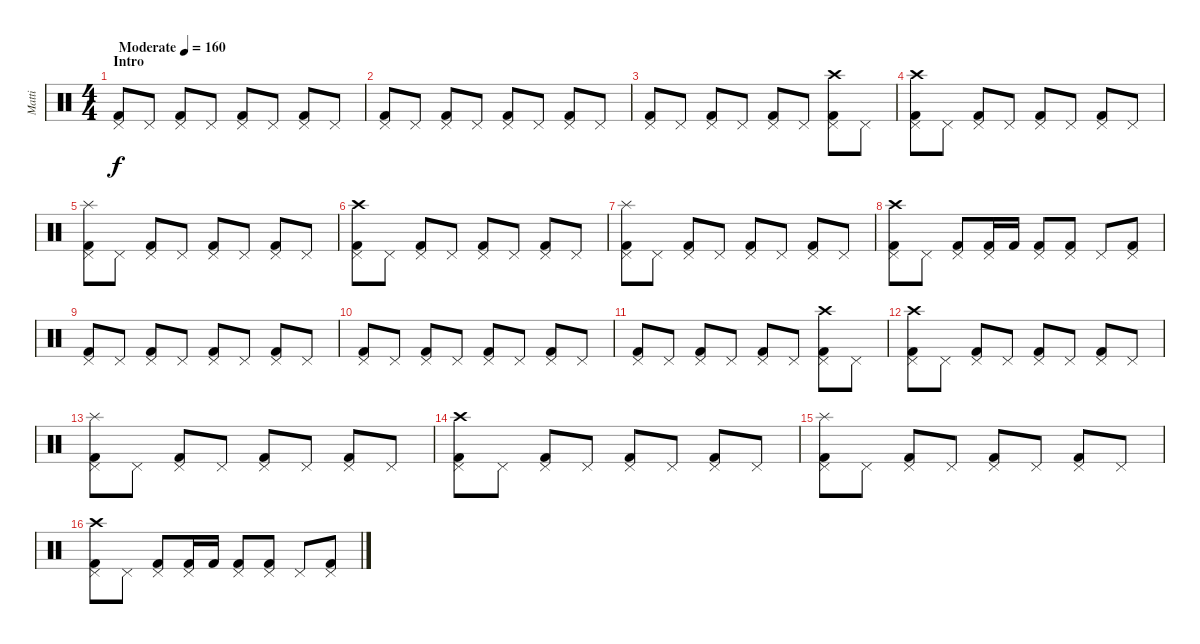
\track ("Matti" "Matti") {instrument percussion}
\staff {score}
\articulation defaults
\ts (4 4)
\section ("" "Intro")
\tempo (160 "Moderate")
\clef neutral
\ks c
("Pedal Hi-Hat (hit)" "Kick (hit) 2").8{dy f} "Pedal Hi-Hat (hit)".8 ("Pedal Hi-Hat (hit)" "Kick (hit) 2").8 "Pedal Hi-Hat (hit)".8 ("Pedal Hi-Hat (hit)" "Kick (hit) 2").8 "Pedal Hi-Hat (hit)".8 ("Pedal Hi-Hat (hit)" "Kick (hit) 2").8 "Pedal Hi-Hat (hit)".8 |
("Pedal Hi-Hat (hit)" "Kick (hit) 2").8 "Pedal Hi-Hat (hit)".8 ("Pedal Hi-Hat (hit)" "Kick (hit) 2").8 "Pedal Hi-Hat (hit)".8 ("Pedal Hi-Hat (hit)" "Kick (hit) 2").8 "Pedal Hi-Hat (hit)".8 ("Pedal Hi-Hat (hit)" "Kick (hit) 2").8 "Pedal Hi-Hat (hit)".8 |
("Pedal Hi-Hat (hit)" "Kick (hit) 2").8 "Pedal Hi-Hat (hit)".8 ("Pedal Hi-Hat (hit)" "Kick (hit) 2").8 "Pedal Hi-Hat (hit)".8 ("Pedal Hi-Hat (hit)" "Kick (hit) 2").8 "Pedal Hi-Hat (hit)".8 ("Crash high (hit)" "Pedal Hi-Hat (hit)" "Kick (hit) 2").8 "Pedal Hi-Hat (hit)".8 |
("Crash high (hit)" "Pedal Hi-Hat (hit)" "Kick (hit) 2").8 "Pedal Hi-Hat (hit)".8 ("Pedal Hi-Hat (hit)" "Kick (hit) 2").8 "Pedal Hi-Hat (hit)".8 ("Pedal Hi-Hat (hit)" "Kick (hit) 2").8 "Pedal Hi-Hat (hit)".8 ("Pedal Hi-Hat (hit)" "Kick (hit) 2").8 "Pedal Hi-Hat (hit)".8 |
("Splash (hit)" "Pedal Hi-Hat (hit)" "Kick (hit) 2").8 "Pedal Hi-Hat (hit)".8 ("Pedal Hi-Hat (hit)" "Kick (hit) 2").8 "Pedal Hi-Hat (hit)".8 ("Pedal Hi-Hat (hit)" "Kick (hit) 2").8 "Pedal Hi-Hat (hit)".8 ("Pedal Hi-Hat (hit)" "Kick (hit) 2").8 "Pedal Hi-Hat (hit)".8 |
("Crash high (hit)" "Pedal Hi-Hat (hit)" "Kick (hit) 2").8 "Pedal Hi-Hat (hit)".8 ("Pedal Hi-Hat (hit)" "Kick (hit) 2").8 "Pedal Hi-Hat (hit)".8 ("Pedal Hi-Hat (hit)" "Kick (hit) 2").8 "Pedal Hi-Hat (hit)".8 ("Pedal Hi-Hat (hit)" "Kick (hit) 2").8 "Pedal Hi-Hat (hit)".8 |
("Splash (hit)" "Pedal Hi-Hat (hit)" "Kick (hit) 2").8 "Pedal Hi-Hat (hit)".8 ("Pedal Hi-Hat (hit)" "Kick (hit) 2").8 "Pedal Hi-Hat (hit)".8 ("Pedal Hi-Hat (hit)" "Kick (hit) 2").8 "Pedal Hi-Hat (hit)".8 ("Pedal Hi-Hat (hit)" "Kick (hit) 2").8 "Pedal Hi-Hat (hit)".8 |
("Crash high (hit)" "Pedal Hi-Hat (hit)" "Kick (hit) 2").8 "Pedal Hi-Hat (hit)".8 ("Pedal Hi-Hat (hit)" "Kick (hit) 2").8 ("Pedal Hi-Hat (hit)" "Kick (hit) 2").16 "Kick (hit) 2".16 ("Pedal Hi-Hat (hit)" "Kick (hit) 2").8 ("Pedal Hi-Hat (hit)" "Kick (hit) 2").8 "Pedal Hi-Hat (hit)".8 ("Pedal Hi-Hat (hit)" "Kick (hit) 2").8 |
("Pedal Hi-Hat (hit)" "Kick (hit) 2").8 "Pedal Hi-Hat (hit)".8 ("Pedal Hi-Hat (hit)" "Kick (hit) 2").8 "Pedal Hi-Hat (hit)".8 ("Pedal Hi-Hat (hit)" "Kick (hit) 2").8 "Pedal Hi-Hat (hit)".8 ("Pedal Hi-Hat (hit)" "Kick (hit) 2").8 "Pedal Hi-Hat (hit)".8 |
("Pedal Hi-Hat (hit)" "Kick (hit) 2").8 "Pedal Hi-Hat (hit)".8 ("Pedal Hi-Hat (hit)" "Kick (hit) 2").8 "Pedal Hi-Hat (hit)".8 ("Pedal Hi-Hat (hit)" "Kick (hit) 2").8 "Pedal Hi-Hat (hit)".8 ("Pedal Hi-Hat (hit)" "Kick (hit) 2").8 "Pedal Hi-Hat (hit)".8 |
("Pedal Hi-Hat (hit)" "Kick (hit) 2").8 "Pedal Hi-Hat (hit)".8 ("Pedal Hi-Hat (hit)" "Kick (hit) 2").8 "Pedal Hi-Hat (hit)".8 ("Pedal Hi-Hat (hit)" "Kick (hit) 2").8 "Pedal Hi-Hat (hit)".8 ("Crash high (hit)" "Pedal Hi-Hat (hit)" "Kick (hit) 2").8 "Pedal Hi-Hat (hit)".8 |
("Crash high (hit)" "Pedal Hi-Hat (hit)" "Kick (hit) 2").8 "Pedal Hi-Hat (hit)".8 ("Pedal Hi-Hat (hit)" "Kick (hit) 2").8 "Pedal Hi-Hat (hit)".8 ("Pedal Hi-Hat (hit)" "Kick (hit) 2").8 "Pedal Hi-Hat (hit)".8 ("Pedal Hi-Hat (hit)" "Kick (hit) 2").8 "Pedal Hi-Hat (hit)".8 |
("Splash (hit)" "Pedal Hi-Hat (hit)" "Kick (hit) 2").8 "Pedal Hi-Hat (hit)".8 ("Pedal Hi-Hat (hit)" "Kick (hit) 2").8 "Pedal Hi-Hat (hit)".8 ("Pedal Hi-Hat (hit)" "Kick (hit) 2").8 "Pedal Hi-Hat (hit)".8 ("Pedal Hi-Hat (hit)" "Kick (hit) 2").8 "Pedal Hi-Hat (hit)".8 |
("Crash high (hit)" "Pedal Hi-Hat (hit)" "Kick (hit) 2").8 "Pedal Hi-Hat (hit)".8 ("Pedal Hi-Hat (hit)" "Kick (hit) 2").8 "Pedal Hi-Hat (hit)".8 ("Pedal Hi-Hat (hit)" "Kick (hit) 2").8 "Pedal Hi-Hat (hit)".8 ("Pedal Hi-Hat (hit)" "Kick (hit) 2").8 "Pedal Hi-Hat (hit)".8 |
("Splash (hit)" "Pedal Hi-Hat (hit)" "Kick (hit) 2").8 "Pedal Hi-Hat (hit)".8 ("Pedal Hi-Hat (hit)" "Kick (hit) 2").8 "Pedal Hi-Hat (hit)".8 ("Pedal Hi-Hat (hit)" "Kick (hit) 2").8 "Pedal Hi-Hat (hit)".8 ("Pedal Hi-Hat (hit)" "Kick (hit) 2").8 "Pedal Hi-Hat (hit)".8 |
("Crash high (hit)" "Pedal Hi-Hat (hit)" "Kick (hit) 2").8 "Pedal Hi-Hat (hit)".8 ("Pedal Hi-Hat (hit)" "Kick (hit) 2").8 ("Pedal Hi-Hat (hit)" "Kick (hit) 2").16 "Kick (hit) 2".16 ("Pedal Hi-Hat (hit)" "Kick (hit) 2").8 ("Pedal Hi-Hat (hit)" "Kick (hit) 2").8 "Pedal Hi-Hat (hit)".8 ("Pedal Hi-Hat (hit)" "Kick (hit) 2").8
